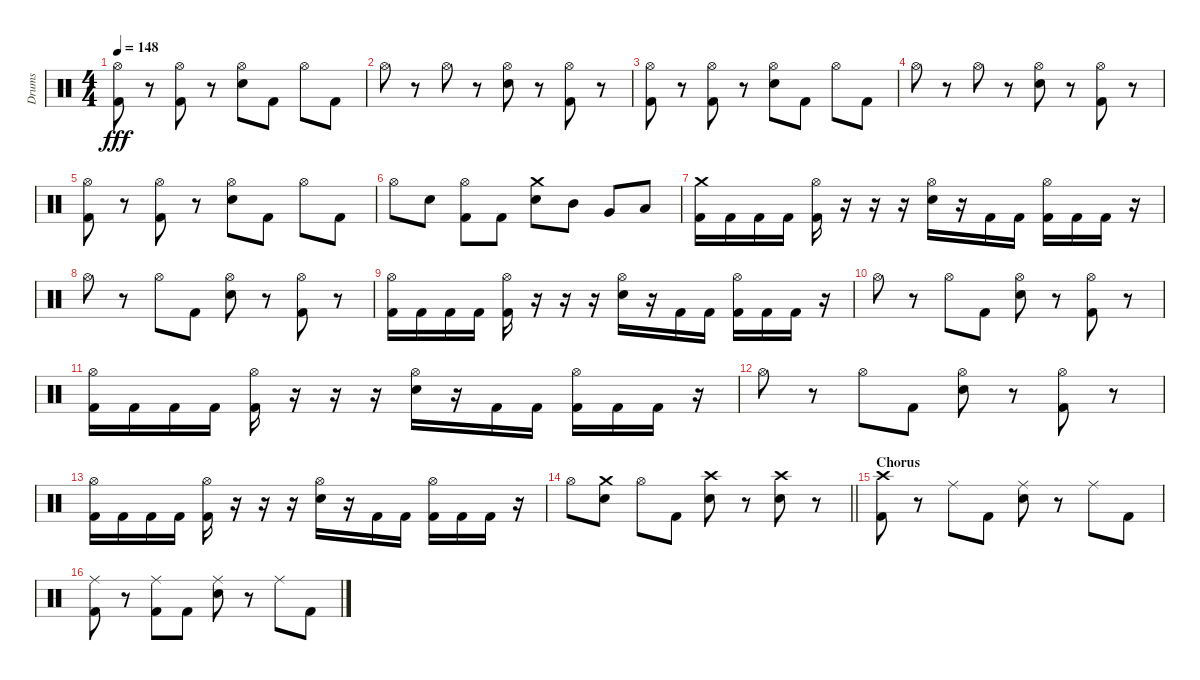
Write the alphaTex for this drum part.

\track ("Drums" "Drums") {instrument percussion}
\staff {score}
\articulation defaults
\ts (4 4)
\tempo 148
\clef neutral
\ks c
("Hi-Hat (open)" "Kick (hit) 2").8{dy fff} r.8 ("Hi-Hat (open)" "Kick (hit) 2").8 r.8 ("Hi-Hat (open)" "Electric Snare (hit)").8 "Kick (hit) 2".8 "Hi-Hat (open)".8 "Kick (hit) 2".8 |
"Hi-Hat (open)".8 r.8 "Hi-Hat (open)".8 r.8 ("Hi-Hat (open)" "Electric Snare (hit)").8 r.8 ("Hi-Hat (open)" "Kick (hit) 2").8 r.8 |
("Hi-Hat (open)" "Kick (hit) 2").8 r.8 ("Hi-Hat (open)" "Kick (hit) 2").8 r.8 ("Hi-Hat (open)" "Electric Snare (hit)").8 "Kick (hit) 2".8 "Hi-Hat (open)".8 "Kick (hit) 2".8 |
"Hi-Hat (open)".8 r.8 "Hi-Hat (open)".8 r.8 ("Hi-Hat (open)" "Electric Snare (hit)").8 r.8 ("Hi-Hat (open)" "Kick (hit) 2").8 r.8 |
("Hi-Hat (open)" "Kick (hit) 2").8 r.8 ("Hi-Hat (open)" "Kick (hit) 2").8 r.8 ("Hi-Hat (open)" "Electric Snare (hit)").8 "Kick (hit) 2".8 "Hi-Hat (open)".8 "Kick (hit) 2".8 |
"Hi-Hat (open)".8 "Electric Snare (hit)".8 ("Hi-Hat (open)" "Kick (hit) 2").8 "Kick (hit) 2".8 ("Crash medium (hit)" "Electric Snare (hit)").8 "Mid Tom (hit)".8 "Very Low Tom (hit)".8 "Low Floor Tom (hit)".8 |
("Crash medium (hit)" "Kick (hit) 2").16 "Kick (hit) 2".16 "Kick (hit) 2".16 "Kick (hit) 2".16 ("Hi-Hat (open)" "Kick (hit) 2").16 r.16 r.16 r.16 ("Hi-Hat (open)" "Electric Snare (hit)").16 r.16 "Kick (hit) 2".16 "Kick (hit) 2".16 ("Hi-Hat (open)" "Kick (hit) 2").16 "Kick (hit) 2".16 "Kick (hit) 2".16 r.16 |
"Hi-Hat (open)".8 r.8 "Hi-Hat (open)".8 "Kick (hit) 2".8 ("Hi-Hat (open)" "Electric Snare (hit)").8 r.8 ("Hi-Hat (open)" "Kick (hit) 2").8 r.8 |
("Hi-Hat (open)" "Kick (hit) 2").16 "Kick (hit) 2".16 "Kick (hit) 2".16 "Kick (hit) 2".16 ("Hi-Hat (open)" "Kick (hit) 2").16 r.16 r.16 r.16 ("Hi-Hat (open)" "Electric Snare (hit)").16 r.16 "Kick (hit) 2".16 "Kick (hit) 2".16 ("Hi-Hat (open)" "Kick (hit) 2").16 "Kick (hit) 2".16 "Kick (hit) 2".16 r.16 |
"Hi-Hat (open)".8 r.8 "Hi-Hat (open)".8 "Kick (hit) 2".8 ("Hi-Hat (open)" "Electric Snare (hit)").8 r.8 ("Hi-Hat (open)" "Kick (hit) 2").8 r.8 |
("Hi-Hat (open)" "Kick (hit) 2").16 "Kick (hit) 2".16 "Kick (hit) 2".16 "Kick (hit) 2".16 ("Hi-Hat (open)" "Kick (hit) 2").16 r.16 r.16 r.16 ("Hi-Hat (open)" "Electric Snare (hit)").16 r.16 "Kick (hit) 2".16 "Kick (hit) 2".16 ("Hi-Hat (open)" "Kick (hit) 2").16 "Kick (hit) 2".16 "Kick (hit) 2".16 r.16 |
"Hi-Hat (open)".8 r.8 "Hi-Hat (open)".8 "Kick (hit) 2".8 ("Hi-Hat (open)" "Electric Snare (hit)").8 r.8 ("Hi-Hat (open)" "Kick (hit) 2").8 r.8 |
("Hi-Hat (open)" "Kick (hit) 2").16 "Kick (hit) 2".16 "Kick (hit) 2".16 "Kick (hit) 2".16 ("Hi-Hat (open)" "Kick (hit) 2").16 r.16 r.16 r.16 ("Hi-Hat (open)" "Electric Snare (hit)").16 r.16 "Kick (hit) 2".16 "Kick (hit) 2".16 ("Hi-Hat (open)" "Kick (hit) 2").16 "Kick (hit) 2".16 "Kick (hit) 2".16 r.16 |
\barLineRight lightlight "Hi-Hat (open)".8
("Crash medium (hit)" "Electric Snare (hit)").8 "Hi-Hat (open)".8 "Kick (hit) 2".8 ("Crash high (hit)" "Electric Snare (hit)").8 r.8 ("Crash high (hit)" "Electric Snare (hit)").8 r.8 |
\section ("" "Chorus")
("Crash high (hit)" "Kick (hit) 2").8 r.8 "Ride (middle)".8 "Kick (hit) 2".8 ("Ride (middle)" "Electric Snare (hit)").8 r.8 "Ride (middle)".8 "Kick (hit) 2".8 |
("Ride (middle)" "Kick (hit) 2").8 r.8 ("Ride (middle)" "Kick (hit) 2").8 "Kick (hit) 2".8 ("Ride (middle)" "Electric Snare (hit)").8 r.8 "Ride (middle)".8 "Kick (hit) 2".8
